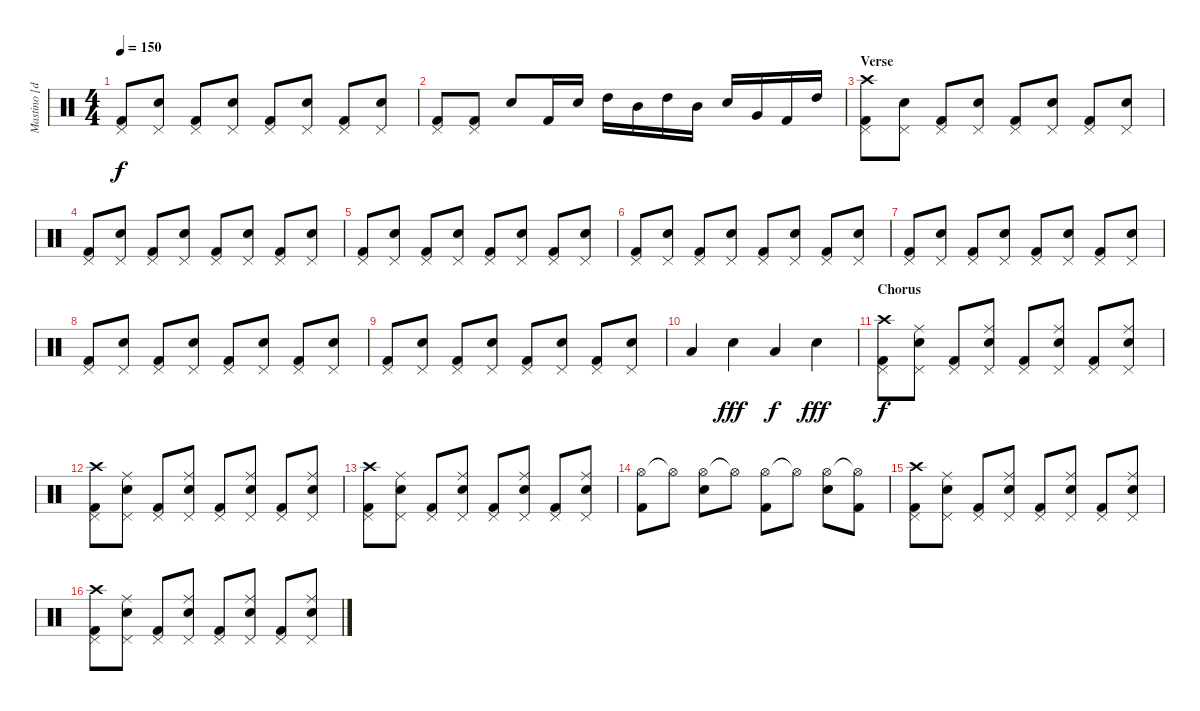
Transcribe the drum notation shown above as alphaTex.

\track ("Mastino [drums]" "Mastino [d") {instrument percussion}
\staff {score}
\articulation defaults
\ts (4 4)
\tempo 150
\clef neutral
\ks c
("Pedal Hi-Hat (hit)" "Kick (hit) 2").8{dy f} ("Pedal Hi-Hat (hit)" "Electric Snare (hit)").8 ("Pedal Hi-Hat (hit)" "Kick (hit) 2").8 ("Pedal Hi-Hat (hit)" "Electric Snare (hit)").8 ("Pedal Hi-Hat (hit)" "Kick (hit) 2").8 ("Pedal Hi-Hat (hit)" "Electric Snare (hit)").8 ("Pedal Hi-Hat (hit)" "Kick (hit) 2").8 ("Pedal Hi-Hat (hit)" "Electric Snare (hit)").8 |
("Pedal Hi-Hat (hit)" "Kick (hit) 2").8 ("Pedal Hi-Hat (hit)" "Kick (hit) 2").8 "Electric Snare (hit)".8 "Kick (hit) 2".16 "Electric Snare (hit)".16 "High Tom (hit)".16 "Mid Tom (hit)".16 "High Tom (hit)".16 "Mid Tom (hit)".16 "Electric Snare (hit)".16 "Very Low Tom (hit)".16 "Kick (hit) 2".16 "High Tom (hit)".16 |
\section ("" "Verse")
("Crash high (hit)" "Pedal Hi-Hat (hit)" "Kick (hit) 2").8 ("Pedal Hi-Hat (hit)" "Electric Snare (hit)").8 ("Pedal Hi-Hat (hit)" "Kick (hit) 2").8 ("Pedal Hi-Hat (hit)" "Electric Snare (hit)").8 ("Pedal Hi-Hat (hit)" "Kick (hit) 2").8 ("Pedal Hi-Hat (hit)" "Electric Snare (hit)").8 ("Pedal Hi-Hat (hit)" "Kick (hit) 2").8 ("Pedal Hi-Hat (hit)" "Electric Snare (hit)").8 |
("Pedal Hi-Hat (hit)" "Kick (hit) 2").8 ("Pedal Hi-Hat (hit)" "Electric Snare (hit)").8 ("Pedal Hi-Hat (hit)" "Kick (hit) 2").8 ("Pedal Hi-Hat (hit)" "Electric Snare (hit)").8 ("Pedal Hi-Hat (hit)" "Kick (hit) 2").8 ("Pedal Hi-Hat (hit)" "Electric Snare (hit)").8 ("Pedal Hi-Hat (hit)" "Kick (hit) 2").8 ("Pedal Hi-Hat (hit)" "Electric Snare (hit)").8 |
("Pedal Hi-Hat (hit)" "Kick (hit) 2").8 ("Pedal Hi-Hat (hit)" "Electric Snare (hit)").8 ("Pedal Hi-Hat (hit)" "Kick (hit) 2").8 ("Pedal Hi-Hat (hit)" "Electric Snare (hit)").8 ("Pedal Hi-Hat (hit)" "Kick (hit) 2").8 ("Pedal Hi-Hat (hit)" "Electric Snare (hit)").8 ("Pedal Hi-Hat (hit)" "Kick (hit) 2").8 ("Pedal Hi-Hat (hit)" "Electric Snare (hit)").8 |
("Pedal Hi-Hat (hit)" "Kick (hit) 2").8 ("Pedal Hi-Hat (hit)" "Electric Snare (hit)").8 ("Pedal Hi-Hat (hit)" "Kick (hit) 2").8 ("Pedal Hi-Hat (hit)" "Electric Snare (hit)").8 ("Pedal Hi-Hat (hit)" "Kick (hit) 2").8 ("Pedal Hi-Hat (hit)" "Electric Snare (hit)").8 ("Pedal Hi-Hat (hit)" "Kick (hit) 2").8 ("Pedal Hi-Hat (hit)" "Electric Snare (hit)").8 |
("Pedal Hi-Hat (hit)" "Kick (hit) 2").8 ("Pedal Hi-Hat (hit)" "Electric Snare (hit)").8 ("Pedal Hi-Hat (hit)" "Kick (hit) 2").8 ("Pedal Hi-Hat (hit)" "Electric Snare (hit)").8 ("Pedal Hi-Hat (hit)" "Kick (hit) 2").8 ("Pedal Hi-Hat (hit)" "Electric Snare (hit)").8 ("Pedal Hi-Hat (hit)" "Kick (hit) 2").8 ("Pedal Hi-Hat (hit)" "Electric Snare (hit)").8 |
("Pedal Hi-Hat (hit)" "Kick (hit) 2").8 ("Pedal Hi-Hat (hit)" "Electric Snare (hit)").8 ("Pedal Hi-Hat (hit)" "Kick (hit) 2").8 ("Pedal Hi-Hat (hit)" "Electric Snare (hit)").8 ("Pedal Hi-Hat (hit)" "Kick (hit) 2").8 ("Pedal Hi-Hat (hit)" "Electric Snare (hit)").8 ("Pedal Hi-Hat (hit)" "Kick (hit) 2").8 ("Pedal Hi-Hat (hit)" "Electric Snare (hit)").8 |
("Pedal Hi-Hat (hit)" "Kick (hit) 2").8 ("Pedal Hi-Hat (hit)" "Electric Snare (hit)").8 ("Pedal Hi-Hat (hit)" "Kick (hit) 2").8 ("Pedal Hi-Hat (hit)" "Electric Snare (hit)").8 ("Pedal Hi-Hat (hit)" "Kick (hit) 2").8 ("Pedal Hi-Hat (hit)" "Electric Snare (hit)").8 ("Pedal Hi-Hat (hit)" "Kick (hit) 2").8 ("Pedal Hi-Hat (hit)" "Electric Snare (hit)").8 |
"Low Tom (hit)".4 "Electric Snare (hit)".4{dy fff} "Low Tom (hit)".4{dy f} "Electric Snare (hit)".4{dy fff} |
\section ("" "Chorus")
("Crash high (hit)" "Pedal Hi-Hat (hit)" "Kick (hit) 2").8{dy f} ("Ride (middle)" "Pedal Hi-Hat (hit)" "Electric Snare (hit)").8 ("Pedal Hi-Hat (hit)" "Kick (hit) 2").8 ("Ride (middle)" "Pedal Hi-Hat (hit)" "Electric Snare (hit)").8 ("Pedal Hi-Hat (hit)" "Kick (hit) 2").8 ("Ride (middle)" "Pedal Hi-Hat (hit)" "Electric Snare (hit)").8 ("Pedal Hi-Hat (hit)" "Kick (hit) 2").8 ("Ride (middle)" "Pedal Hi-Hat (hit)" "Electric Snare (hit)").8 |
("Crash high (hit)" "Pedal Hi-Hat (hit)" "Kick (hit) 2").8 ("Ride (middle)" "Pedal Hi-Hat (hit)" "Electric Snare (hit)").8 ("Pedal Hi-Hat (hit)" "Kick (hit) 2").8 ("Ride (middle)" "Pedal Hi-Hat (hit)" "Electric Snare (hit)").8 ("Pedal Hi-Hat (hit)" "Kick (hit) 2").8 ("Ride (middle)" "Pedal Hi-Hat (hit)" "Electric Snare (hit)").8 ("Pedal Hi-Hat (hit)" "Kick (hit) 2").8 ("Ride (middle)" "Pedal Hi-Hat (hit)" "Electric Snare (hit)").8 |
("Crash high (hit)" "Pedal Hi-Hat (hit)" "Kick (hit) 2").8 ("Ride (middle)" "Pedal Hi-Hat (hit)" "Electric Snare (hit)").8 ("Pedal Hi-Hat (hit)" "Kick (hit) 2").8 ("Ride (middle)" "Pedal Hi-Hat (hit)" "Electric Snare (hit)").8 ("Pedal Hi-Hat (hit)" "Kick (hit) 2").8 ("Ride (middle)" "Pedal Hi-Hat (hit)" "Electric Snare (hit)").8 ("Pedal Hi-Hat (hit)" "Kick (hit) 2").8 ("Ride (middle)" "Pedal Hi-Hat (hit)" "Electric Snare (hit)").8 |
("Hi-Hat (open)" "Kick (hit) 2").8 "Hi-Hat (open)"{t}.8 ("Hi-Hat (open)" "Electric Snare (hit)").8 "Hi-Hat (open)"{t}.8 ("Hi-Hat (open)" "Kick (hit) 2").8 "Hi-Hat (open)"{t}.8 ("Hi-Hat (open)" "Electric Snare (hit)").8 ("Hi-Hat (open)"{t} "Kick (hit) 2").8 |
("Crash high (hit)" "Pedal Hi-Hat (hit)" "Kick (hit) 2").8 ("Ride (middle)" "Pedal Hi-Hat (hit)" "Electric Snare (hit)").8 ("Pedal Hi-Hat (hit)" "Kick (hit) 2").8 ("Ride (middle)" "Pedal Hi-Hat (hit)" "Electric Snare (hit)").8 ("Pedal Hi-Hat (hit)" "Kick (hit) 2").8 ("Ride (middle)" "Pedal Hi-Hat (hit)" "Electric Snare (hit)").8 ("Pedal Hi-Hat (hit)" "Kick (hit) 2").8 ("Ride (middle)" "Pedal Hi-Hat (hit)" "Electric Snare (hit)").8 |
("Crash high (hit)" "Pedal Hi-Hat (hit)" "Kick (hit) 2").8 ("Ride (middle)" "Pedal Hi-Hat (hit)" "Electric Snare (hit)").8 ("Pedal Hi-Hat (hit)" "Kick (hit) 2").8 ("Ride (middle)" "Pedal Hi-Hat (hit)" "Electric Snare (hit)").8 ("Pedal Hi-Hat (hit)" "Kick (hit) 2").8 ("Ride (middle)" "Pedal Hi-Hat (hit)" "Electric Snare (hit)").8 ("Pedal Hi-Hat (hit)" "Kick (hit) 2").8 ("Ride (middle)" "Pedal Hi-Hat (hit)" "Electric Snare (hit)").8
